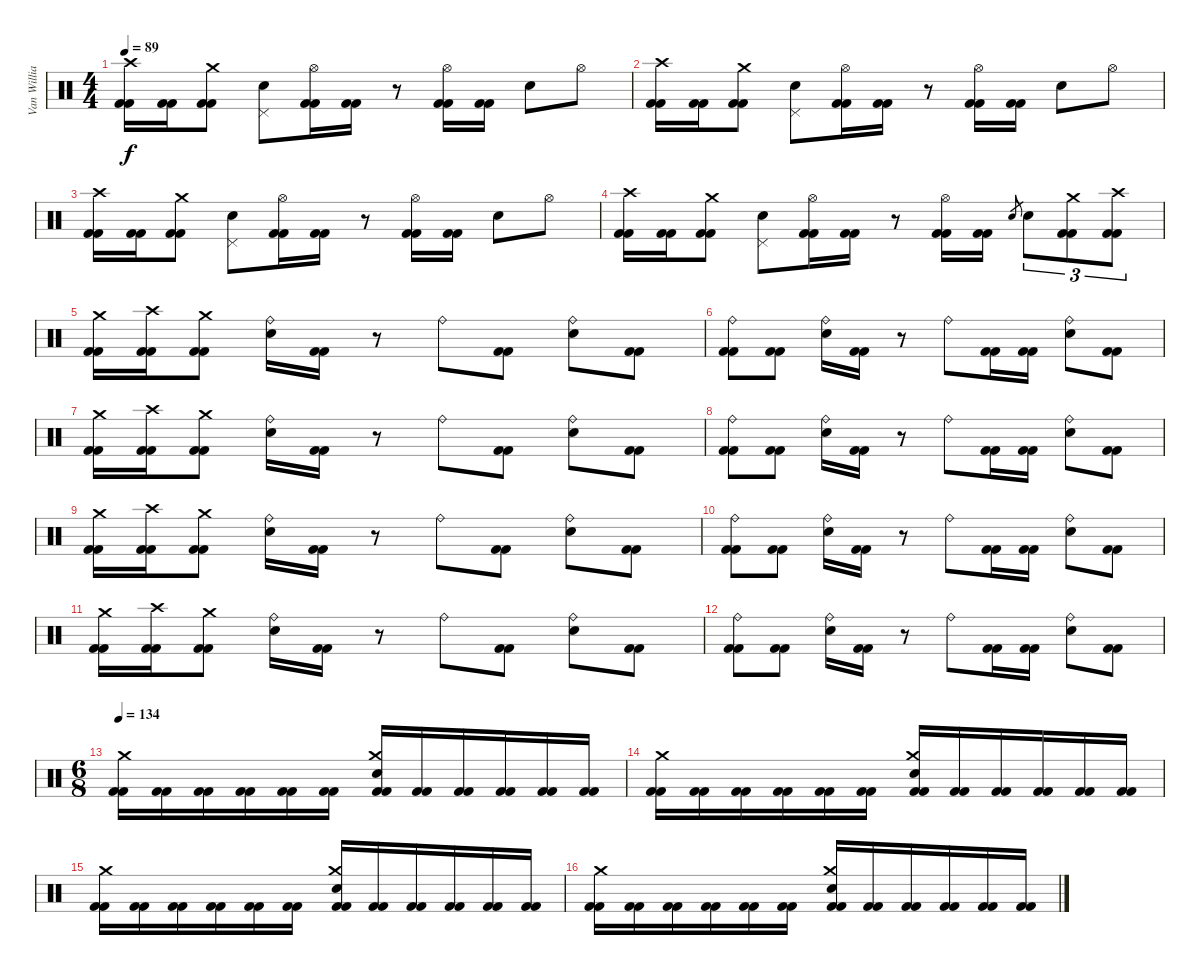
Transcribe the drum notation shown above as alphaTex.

\track ("Van Williams" "Van Willia") {instrument percussion}
\staff {score}
\articulation defaults
\ts (4 4)
\tempo 89
\clef neutral
\ks c
("Crash high (hit)" "Kick (hit) 2" "Kick (hit) 2").16{dy f} ("Kick (hit) 2" "Kick (hit) 2").16 ("Crash medium (hit)" "Kick (hit) 2" "Kick (hit) 2").8 ("Pedal Hi-Hat (hit)" "Electric Snare (hit)").8 ("Hi-Hat (open)" "Kick (hit) 2" "Kick (hit) 2").16 ("Kick (hit) 2" "Kick (hit) 2").16 r.8 ("Hi-Hat (open)" "Kick (hit) 2" "Kick (hit) 2").16 ("Kick (hit) 2" "Kick (hit) 2").16 "Electric Snare (hit)".8 "Hi-Hat (open)".8 |
("Crash high (hit)" "Kick (hit) 2" "Kick (hit) 2").16 ("Kick (hit) 2" "Kick (hit) 2").16 ("Crash medium (hit)" "Kick (hit) 2" "Kick (hit) 2").8 ("Pedal Hi-Hat (hit)" "Electric Snare (hit)").8 ("Hi-Hat (open)" "Kick (hit) 2" "Kick (hit) 2").16 ("Kick (hit) 2" "Kick (hit) 2").16 r.8 ("Hi-Hat (open)" "Kick (hit) 2" "Kick (hit) 2").16 ("Kick (hit) 2" "Kick (hit) 2").16 "Electric Snare (hit)".8 "Hi-Hat (open)".8 |
("Crash high (hit)" "Kick (hit) 2" "Kick (hit) 2").16 ("Kick (hit) 2" "Kick (hit) 2").16 ("Crash medium (hit)" "Kick (hit) 2" "Kick (hit) 2").8 ("Pedal Hi-Hat (hit)" "Electric Snare (hit)").8 ("Hi-Hat (open)" "Kick (hit) 2" "Kick (hit) 2").16 ("Kick (hit) 2" "Kick (hit) 2").16 r.8 ("Hi-Hat (open)" "Kick (hit) 2" "Kick (hit) 2").16 ("Kick (hit) 2" "Kick (hit) 2").16 "Electric Snare (hit)".8 "Hi-Hat (open)".8 |
("Crash high (hit)" "Kick (hit) 2" "Kick (hit) 2").16 ("Kick (hit) 2" "Kick (hit) 2").16 ("Crash medium (hit)" "Kick (hit) 2" "Kick (hit) 2").8 ("Pedal Hi-Hat (hit)" "Electric Snare (hit)").8 ("Hi-Hat (open)" "Kick (hit) 2" "Kick (hit) 2").16 ("Kick (hit) 2" "Kick (hit) 2").16 r.8 ("Hi-Hat (open)" "Kick (hit) 2" "Kick (hit) 2").16 ("Kick (hit) 2" "Kick (hit) 2").16 "Electric Snare (hit)".8{gr} "Electric Snare (hit)".8{tu (3 2)} ("Crash medium (hit)" "Kick (hit) 2" "Kick (hit) 2").8{tu (3 2)} ("Crash high (hit)" "Kick (hit) 2" "Kick (hit) 2").8{tu (3 2)} |
("Crash medium (hit)" "Kick (hit) 2" "Kick (hit) 2").16 ("Crash high (hit)" "Kick (hit) 2" "Kick (hit) 2").16 ("Crash medium (hit)" "Kick (hit) 2" "Kick (hit) 2").8 ("Ride (bell)" "Electric Snare (hit)").16 ("Kick (hit) 2" "Kick (hit) 2").16 r.8 "Ride (bell)".8 ("Kick (hit) 2" "Kick (hit) 2").8 ("Ride (bell)" "Electric Snare (hit)").8 ("Kick (hit) 2" "Kick (hit) 2").8 |
("Ride (bell)" "Kick (hit) 2" "Kick (hit) 2").8 ("Kick (hit) 2" "Kick (hit) 2").8 ("Ride (bell)" "Electric Snare (hit)").16 ("Kick (hit) 2" "Kick (hit) 2").16 r.8 "Ride (bell)".8 ("Kick (hit) 2" "Kick (hit) 2").16 ("Kick (hit) 2" "Kick (hit) 2").16 ("Ride (bell)" "Electric Snare (hit)").8 ("Kick (hit) 2" "Kick (hit) 2").8 |
("Crash medium (hit)" "Kick (hit) 2" "Kick (hit) 2").16 ("Crash high (hit)" "Kick (hit) 2" "Kick (hit) 2").16 ("Crash medium (hit)" "Kick (hit) 2" "Kick (hit) 2").8 ("Ride (bell)" "Electric Snare (hit)").16 ("Kick (hit) 2" "Kick (hit) 2").16 r.8 "Ride (bell)".8 ("Kick (hit) 2" "Kick (hit) 2").8 ("Ride (bell)" "Electric Snare (hit)").8 ("Kick (hit) 2" "Kick (hit) 2").8 |
("Ride (bell)" "Kick (hit) 2" "Kick (hit) 2").8 ("Kick (hit) 2" "Kick (hit) 2").8 ("Ride (bell)" "Electric Snare (hit)").16 ("Kick (hit) 2" "Kick (hit) 2").16 r.8 "Ride (bell)".8 ("Kick (hit) 2" "Kick (hit) 2").16 ("Kick (hit) 2" "Kick (hit) 2").16 ("Ride (bell)" "Electric Snare (hit)").8 ("Kick (hit) 2" "Kick (hit) 2").8 |
("Crash medium (hit)" "Kick (hit) 2" "Kick (hit) 2").16 ("Crash high (hit)" "Kick (hit) 2" "Kick (hit) 2").16 ("Crash medium (hit)" "Kick (hit) 2" "Kick (hit) 2").8 ("Ride (bell)" "Electric Snare (hit)").16 ("Kick (hit) 2" "Kick (hit) 2").16 r.8 "Ride (bell)".8 ("Kick (hit) 2" "Kick (hit) 2").8 ("Ride (bell)" "Electric Snare (hit)").8 ("Kick (hit) 2" "Kick (hit) 2").8 |
("Ride (bell)" "Kick (hit) 2" "Kick (hit) 2").8 ("Kick (hit) 2" "Kick (hit) 2").8 ("Ride (bell)" "Electric Snare (hit)").16 ("Kick (hit) 2" "Kick (hit) 2").16 r.8 "Ride (bell)".8 ("Kick (hit) 2" "Kick (hit) 2").16 ("Kick (hit) 2" "Kick (hit) 2").16 ("Ride (bell)" "Electric Snare (hit)").8 ("Kick (hit) 2" "Kick (hit) 2").8 |
("Crash medium (hit)" "Kick (hit) 2" "Kick (hit) 2").16 ("Crash high (hit)" "Kick (hit) 2" "Kick (hit) 2").16 ("Crash medium (hit)" "Kick (hit) 2" "Kick (hit) 2").8 ("Ride (bell)" "Electric Snare (hit)").16 ("Kick (hit) 2" "Kick (hit) 2").16 r.8 "Ride (bell)".8 ("Kick (hit) 2" "Kick (hit) 2").8 ("Ride (bell)" "Electric Snare (hit)").8 ("Kick (hit) 2" "Kick (hit) 2").8 |
("Ride (bell)" "Kick (hit) 2" "Kick (hit) 2").8 ("Kick (hit) 2" "Kick (hit) 2").8 ("Ride (bell)" "Electric Snare (hit)").16 ("Kick (hit) 2" "Kick (hit) 2").16 r.8 "Ride (bell)".8 ("Kick (hit) 2" "Kick (hit) 2").16 ("Kick (hit) 2" "Kick (hit) 2").16 ("Ride (bell)" "Electric Snare (hit)").8 ("Kick (hit) 2" "Kick (hit) 2").8 |
\ts (6 8)
\tempo 134
("Crash medium (hit)" "Kick (hit) 2" "Kick (hit) 2").16 ("Kick (hit) 2" "Kick (hit) 2").16 ("Kick (hit) 2" "Kick (hit) 2").16 ("Kick (hit) 2" "Kick (hit) 2").16 ("Kick (hit) 2" "Kick (hit) 2").16 ("Kick (hit) 2" "Kick (hit) 2").16 ("Crash medium (hit)" "Electric Snare (hit)" "Kick (hit) 2" "Kick (hit) 2").16 ("Kick (hit) 2" "Kick (hit) 2").16 ("Kick (hit) 2" "Kick (hit) 2").16 ("Kick (hit) 2" "Kick (hit) 2").16 ("Kick (hit) 2" "Kick (hit) 2").16 ("Kick (hit) 2" "Kick (hit) 2").16 |
("Crash medium (hit)" "Kick (hit) 2" "Kick (hit) 2").16 ("Kick (hit) 2" "Kick (hit) 2").16 ("Kick (hit) 2" "Kick (hit) 2").16 ("Kick (hit) 2" "Kick (hit) 2").16 ("Kick (hit) 2" "Kick (hit) 2").16 ("Kick (hit) 2" "Kick (hit) 2").16 ("Crash medium (hit)" "Electric Snare (hit)" "Kick (hit) 2" "Kick (hit) 2").16 ("Kick (hit) 2" "Kick (hit) 2").16 ("Kick (hit) 2" "Kick (hit) 2").16 ("Kick (hit) 2" "Kick (hit) 2").16 ("Kick (hit) 2" "Kick (hit) 2").16 ("Kick (hit) 2" "Kick (hit) 2").16 |
("Crash medium (hit)" "Kick (hit) 2" "Kick (hit) 2").16 ("Kick (hit) 2" "Kick (hit) 2").16 ("Kick (hit) 2" "Kick (hit) 2").16 ("Kick (hit) 2" "Kick (hit) 2").16 ("Kick (hit) 2" "Kick (hit) 2").16 ("Kick (hit) 2" "Kick (hit) 2").16 ("Crash medium (hit)" "Electric Snare (hit)" "Kick (hit) 2" "Kick (hit) 2").16 ("Kick (hit) 2" "Kick (hit) 2").16 ("Kick (hit) 2" "Kick (hit) 2").16 ("Kick (hit) 2" "Kick (hit) 2").16 ("Kick (hit) 2" "Kick (hit) 2").16 ("Kick (hit) 2" "Kick (hit) 2").16 |
("Crash medium (hit)" "Kick (hit) 2" "Kick (hit) 2").16 ("Kick (hit) 2" "Kick (hit) 2").16 ("Kick (hit) 2" "Kick (hit) 2").16 ("Kick (hit) 2" "Kick (hit) 2").16 ("Kick (hit) 2" "Kick (hit) 2").16 ("Kick (hit) 2" "Kick (hit) 2").16 ("Crash medium (hit)" "Electric Snare (hit)" "Kick (hit) 2" "Kick (hit) 2").16 ("Kick (hit) 2" "Kick (hit) 2").16 ("Kick (hit) 2" "Kick (hit) 2").16 ("Kick (hit) 2" "Kick (hit) 2").16 ("Kick (hit) 2" "Kick (hit) 2").16 ("Kick (hit) 2" "Kick (hit) 2").16
